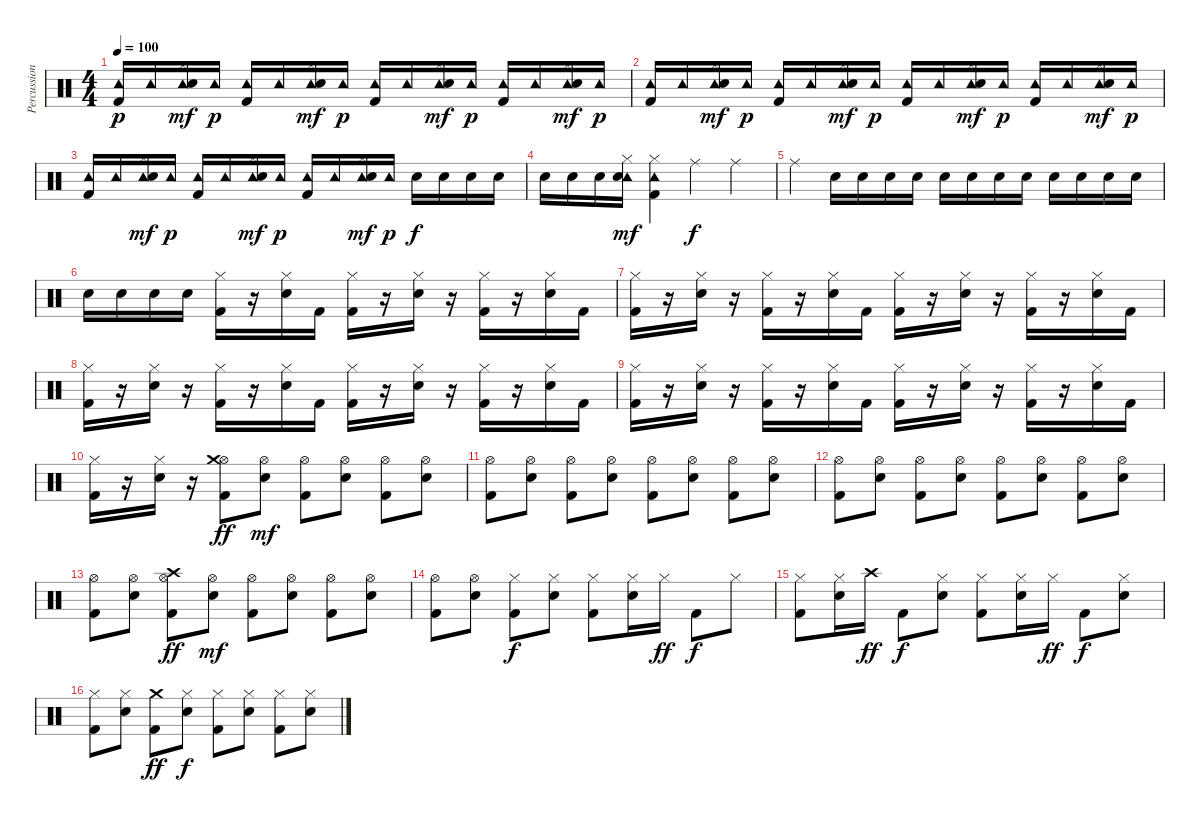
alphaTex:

\track ("Percussion" "Percussion") {instrument percussion}
\staff {score}
\articulation defaults
\ts (4 4)
\tempo 100
\clef neutral
\ks c
("Tambourine (hit)" "Kick (hit) 2").16{dy p} "Tambourine (hit)".16 ("Tambourine (hit)" "Hi-Hat (closed)" "Electric Snare (hit)").16{dy mf} "Tambourine (hit)".16{dy p} ("Tambourine (hit)" "Kick (hit) 2").16 "Tambourine (hit)".16 ("Tambourine (hit)" "Hi-Hat (closed)" "Electric Snare (hit)").16{dy mf} "Tambourine (hit)".16{dy p} ("Tambourine (hit)" "Kick (hit) 2").16 "Tambourine (hit)".16 ("Tambourine (hit)" "Hi-Hat (closed)" "Electric Snare (hit)").16{dy mf} "Tambourine (hit)".16{dy p} ("Tambourine (hit)" "Kick (hit) 2").16 "Tambourine (hit)".16 ("Tambourine (hit)" "Hi-Hat (closed)" "Electric Snare (hit)").16{dy mf} "Tambourine (hit)".16{dy p} |
("Tambourine (hit)" "Kick (hit) 2").16 "Tambourine (hit)".16 ("Tambourine (hit)" "Hi-Hat (closed)" "Electric Snare (hit)").16{dy mf} "Tambourine (hit)".16{dy p} ("Tambourine (hit)" "Kick (hit) 2").16 "Tambourine (hit)".16 ("Tambourine (hit)" "Hi-Hat (closed)" "Electric Snare (hit)").16{dy mf} "Tambourine (hit)".16{dy p} ("Tambourine (hit)" "Kick (hit) 2").16 "Tambourine (hit)".16 ("Tambourine (hit)" "Hi-Hat (closed)" "Electric Snare (hit)").16{dy mf} "Tambourine (hit)".16{dy p} ("Tambourine (hit)" "Kick (hit) 2").16 "Tambourine (hit)".16 ("Tambourine (hit)" "Hi-Hat (closed)" "Electric Snare (hit)").16{dy mf} "Tambourine (hit)".16{dy p} |
("Tambourine (hit)" "Kick (hit) 2").16 "Tambourine (hit)".16 ("Tambourine (hit)" "Hi-Hat (closed)" "Electric Snare (hit)").16{dy mf} "Tambourine (hit)".16{dy p} ("Tambourine (hit)" "Kick (hit) 2").16 "Tambourine (hit)".16 ("Tambourine (hit)" "Hi-Hat (closed)" "Electric Snare (hit)").16{dy mf} "Tambourine (hit)".16{dy p} ("Tambourine (hit)" "Kick (hit) 2").16 "Tambourine (hit)".16 ("Tambourine (hit)" "Hi-Hat (closed)" "Electric Snare (hit)").16{dy mf} "Tambourine (hit)".16{dy p} "Electric Snare (hit)".16{dy f} "Electric Snare (hit)".16 "Electric Snare (hit)".16 "Electric Snare (hit)".16 |
"Electric Snare (hit)".16 "Electric Snare (hit)".16 "Electric Snare (hit)".16 ("Tambourine (hit)" "Hi-Hat (closed)" "Electric Snare (hit)").16{dy mf} ("Tambourine (hit)" "Hi-Hat (closed)" "Kick (hit) 2").4 "Ride (middle)".4{dy f} "Ride (middle)".4 |
"Ride (middle)".4 "Electric Snare (hit)".16 "Electric Snare (hit)".16 "Electric Snare (hit)".16 "Electric Snare (hit)".16 "Electric Snare (hit)".16 "Electric Snare (hit)".16 "Electric Snare (hit)".16 "Electric Snare (hit)".16 "Electric Snare (hit)".16 "Electric Snare (hit)".16 "Electric Snare (hit)".16 "Electric Snare (hit)".16 |
"Electric Snare (hit)".16 "Electric Snare (hit)".16 "Electric Snare (hit)".16 "Electric Snare (hit)".16 ("Hi-Hat (closed)" "Kick (hit) 2").16 r.16 ("Hi-Hat (closed)" "Electric Snare (hit)").16 "Kick (hit) 2".16 ("Hi-Hat (closed)" "Kick (hit) 2").16 r.16 ("Hi-Hat (closed)" "Electric Snare (hit)").16 r.16 ("Hi-Hat (closed)" "Kick (hit) 2").16 r.16 ("Hi-Hat (closed)" "Electric Snare (hit)").16 "Kick (hit) 2".16 |
("Hi-Hat (closed)" "Kick (hit) 2").16 r.16 ("Hi-Hat (closed)" "Electric Snare (hit)").16 r.16 ("Hi-Hat (closed)" "Kick (hit) 2").16 r.16 ("Hi-Hat (closed)" "Electric Snare (hit)").16 "Kick (hit) 2".16 ("Hi-Hat (closed)" "Kick (hit) 2").16 r.16 ("Hi-Hat (closed)" "Electric Snare (hit)").16 r.16 ("Hi-Hat (closed)" "Kick (hit) 2").16 r.16 ("Hi-Hat (closed)" "Electric Snare (hit)").16 "Kick (hit) 2".16 |
("Hi-Hat (closed)" "Kick (hit) 2").16 r.16 ("Hi-Hat (closed)" "Electric Snare (hit)").16 r.16 ("Hi-Hat (closed)" "Kick (hit) 2").16 r.16 ("Hi-Hat (closed)" "Electric Snare (hit)").16 "Kick (hit) 2".16 ("Hi-Hat (closed)" "Kick (hit) 2").16 r.16 ("Hi-Hat (closed)" "Electric Snare (hit)").16 r.16 ("Hi-Hat (closed)" "Kick (hit) 2").16 r.16 ("Hi-Hat (closed)" "Electric Snare (hit)").16 "Kick (hit) 2".16 |
("Hi-Hat (closed)" "Kick (hit) 2").16 r.16 ("Hi-Hat (closed)" "Electric Snare (hit)").16 r.16 ("Hi-Hat (closed)" "Kick (hit) 2").16 r.16 ("Hi-Hat (closed)" "Electric Snare (hit)").16 "Kick (hit) 2".16 ("Hi-Hat (closed)" "Kick (hit) 2").16 r.16 ("Hi-Hat (closed)" "Electric Snare (hit)").16 r.16 ("Hi-Hat (closed)" "Kick (hit) 2").16 r.16 ("Hi-Hat (closed)" "Electric Snare (hit)").16 "Kick (hit) 2".16 |
("Hi-Hat (closed)" "Kick (hit) 2").16 r.16 ("Hi-Hat (closed)" "Electric Snare (hit)").16 r.16 ("Hi-Hat (open)" "Crash medium (hit)" "Kick (hit) 2").8{dy ff} ("Hi-Hat (open)" "Electric Snare (hit)").8{dy mf} ("Hi-Hat (open)" "Kick (hit) 2").8 ("Hi-Hat (open)" "Electric Snare (hit)").8 ("Hi-Hat (open)" "Kick (hit) 2").8 ("Hi-Hat (open)" "Electric Snare (hit)").8 |
("Hi-Hat (open)" "Kick (hit) 2").8 ("Hi-Hat (open)" "Electric Snare (hit)").8 ("Hi-Hat (open)" "Kick (hit) 2").8 ("Hi-Hat (open)" "Electric Snare (hit)").8 ("Hi-Hat (open)" "Kick (hit) 2").8 ("Hi-Hat (open)" "Electric Snare (hit)").8 ("Hi-Hat (open)" "Kick (hit) 2").8 ("Hi-Hat (open)" "Electric Snare (hit)").8 |
("Hi-Hat (open)" "Kick (hit) 2").8 ("Hi-Hat (open)" "Electric Snare (hit)").8 ("Hi-Hat (open)" "Kick (hit) 2").8 ("Hi-Hat (open)" "Electric Snare (hit)").8 ("Hi-Hat (open)" "Kick (hit) 2").8 ("Hi-Hat (open)" "Electric Snare (hit)").8 ("Hi-Hat (open)" "Kick (hit) 2").8 ("Hi-Hat (open)" "Electric Snare (hit)").8 |
("Hi-Hat (open)" "Kick (hit) 2").8 ("Hi-Hat (open)" "Electric Snare (hit)").8 ("Hi-Hat (open)" "Crash high (hit)" "Kick (hit) 2").8{dy ff} ("Hi-Hat (open)" "Electric Snare (hit)").8{dy mf} ("Hi-Hat (open)" "Kick (hit) 2").8 ("Hi-Hat (open)" "Electric Snare (hit)").8 ("Hi-Hat (open)" "Kick (hit) 2").8 ("Hi-Hat (open)" "Electric Snare (hit)").8 |
("Hi-Hat (open)" "Kick (hit) 2").8 ("Hi-Hat (open)" "Electric Snare (hit)").8 ("Hi-Hat (closed)" "Kick (hit) 2").8{dy f} ("Hi-Hat (closed)" "Electric Snare (hit)").8 ("Hi-Hat (closed)" "Kick (hit) 2").8 ("Hi-Hat (closed)" "Electric Snare (hit)").16 "Hi-Hat (closed)".16{dy ff} "Kick (hit) 2".8{dy f} "Hi-Hat (closed)".8 |
("Hi-Hat (closed)" "Kick (hit) 2").8 ("Hi-Hat (closed)" "Electric Snare (hit)").16 "Crash high (hit)".16{dy ff} "Kick (hit) 2".8{dy f} ("Hi-Hat (closed)" "Electric Snare (hit)").8 ("Hi-Hat (closed)" "Kick (hit) 2").8 ("Hi-Hat (closed)" "Electric Snare (hit)").16 "Hi-Hat (closed)".16{dy ff} "Kick (hit) 2".8{dy f} ("Hi-Hat (closed)" "Electric Snare (hit)").8 |
("Hi-Hat (closed)" "Kick (hit) 2").8 ("Hi-Hat (closed)" "Electric Snare (hit)").8 ("Crash medium (hit)" "Kick (hit) 2").8{dy ff} ("Hi-Hat (closed)" "Electric Snare (hit)").8{dy f} ("Hi-Hat (closed)" "Kick (hit) 2").8 ("Hi-Hat (closed)" "Electric Snare (hit)").8 ("Hi-Hat (closed)" "Kick (hit) 2").8 ("Hi-Hat (closed)" "Electric Snare (hit)").8
